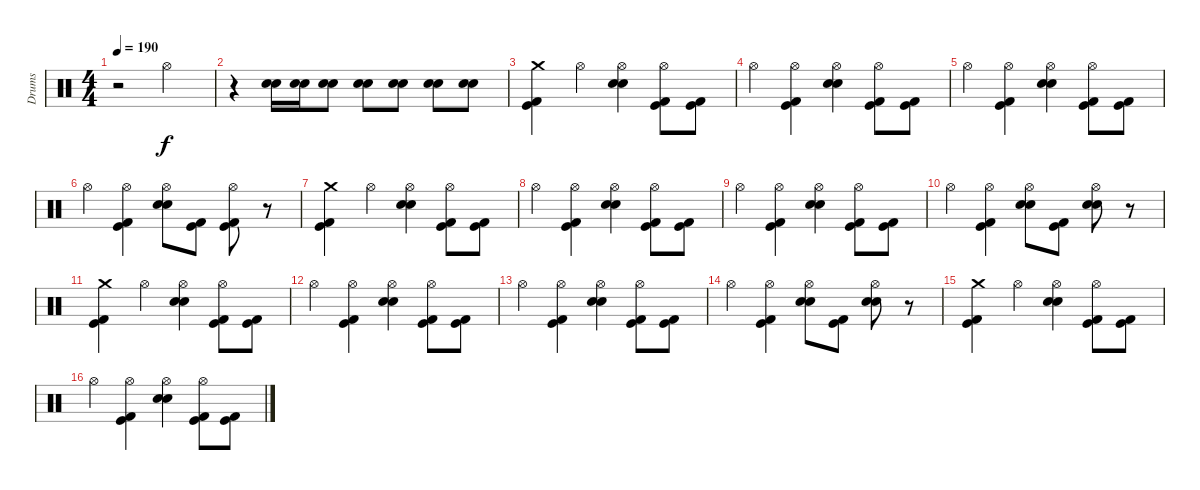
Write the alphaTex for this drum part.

\track ("Drums" "Drums") {instrument percussion}
\staff {score}
\articulation defaults
\ts (4 4)
\tempo 190
\clef neutral
\ks c
r.2{dy f} "Hi-Hat (open)".2 |
r.4 ("Snare (hit) 2" "Snare (hit) 2").16 ("Snare (hit) 2" "Snare (hit) 2").16 ("Snare (hit) 2" "Snare (hit) 2").8 ("Snare (hit) 2" "Snare (hit) 2").8 ("Snare (hit) 2" "Snare (hit) 2").8 ("Snare (hit) 2" "Snare (hit) 2").8 ("Snare (hit) 2" "Snare (hit) 2").8 |
("Crash medium (hit)" "Kick (hit)" "Kick (hit) 2").4 "Hi-Hat (open)".4 ("Hi-Hat (open)" "Snare (hit) 2" "Snare (hit) 2").4 ("Hi-Hat (open)" "Kick (hit) 2" "Kick (hit)").8 ("Kick (hit) 2" "Kick (hit)").8 |
"Hi-Hat (open)".4 ("Hi-Hat (open)" "Kick (hit) 2" "Kick (hit)").4 ("Hi-Hat (open)" "Snare (hit) 2" "Snare (hit) 2").4 ("Hi-Hat (open)" "Kick (hit) 2" "Kick (hit)").8 ("Kick (hit) 2" "Kick (hit)").8 |
"Hi-Hat (open)".4 ("Hi-Hat (open)" "Kick (hit) 2" "Kick (hit)").4 ("Hi-Hat (open)" "Snare (hit) 2" "Snare (hit) 2").4 ("Hi-Hat (open)" "Kick (hit) 2" "Kick (hit)").8 ("Kick (hit) 2" "Kick (hit)").8 |
"Hi-Hat (open)".4 ("Hi-Hat (open)" "Kick (hit) 2" "Kick (hit)").4 ("Hi-Hat (open)" "Snare (hit) 2" "Snare (hit) 2").8 ("Kick (hit) 2" "Kick (hit)").8 ("Hi-Hat (open)" "Kick (hit) 2" "Kick (hit)").8 r.8 |
("Crash medium (hit)" "Kick (hit) 2" "Kick (hit)").4 "Hi-Hat (open)".4 ("Hi-Hat (open)" "Snare (hit) 2" "Snare (hit) 2").4 ("Hi-Hat (open)" "Kick (hit) 2" "Kick (hit)").8 ("Kick (hit) 2" "Kick (hit)").8 |
"Hi-Hat (open)".4 ("Hi-Hat (open)" "Kick (hit) 2" "Kick (hit)").4 ("Hi-Hat (open)" "Snare (hit) 2" "Snare (hit) 2").4 ("Hi-Hat (open)" "Kick (hit) 2" "Kick (hit)").8 ("Kick (hit) 2" "Kick (hit)").8 |
"Hi-Hat (open)".4 ("Hi-Hat (open)" "Kick (hit) 2" "Kick (hit)").4 ("Hi-Hat (open)" "Snare (hit) 2" "Snare (hit) 2").4 ("Hi-Hat (open)" "Kick (hit) 2" "Kick (hit)").8 ("Kick (hit) 2" "Kick (hit)").8 |
"Hi-Hat (open)".4 ("Hi-Hat (open)" "Kick (hit) 2" "Kick (hit)").4 ("Hi-Hat (open)" "Snare (hit) 2" "Snare (hit) 2").8 ("Kick (hit) 2" "Kick (hit)").8 ("Hi-Hat (open)" "Snare (hit) 2" "Snare (hit) 2").8 r.8 |
("Crash medium (hit)" "Kick (hit) 2" "Kick (hit)").4 "Hi-Hat (open)".4 ("Hi-Hat (open)" "Snare (hit) 2" "Snare (hit) 2").4 ("Hi-Hat (open)" "Kick (hit) 2" "Kick (hit)").8 ("Kick (hit) 2" "Kick (hit)").8 |
"Hi-Hat (open)".4 ("Hi-Hat (open)" "Kick (hit) 2" "Kick (hit)").4 ("Hi-Hat (open)" "Snare (hit) 2" "Snare (hit) 2").4 ("Hi-Hat (open)" "Kick (hit) 2" "Kick (hit)").8 ("Kick (hit) 2" "Kick (hit)").8 |
"Hi-Hat (open)".4 ("Hi-Hat (open)" "Kick (hit) 2" "Kick (hit)").4 ("Hi-Hat (open)" "Snare (hit) 2" "Snare (hit) 2").4 ("Hi-Hat (open)" "Kick (hit) 2" "Kick (hit)").8 ("Kick (hit) 2" "Kick (hit)").8 |
"Hi-Hat (open)".4 ("Hi-Hat (open)" "Kick (hit) 2" "Kick (hit)").4 ("Hi-Hat (open)" "Snare (hit) 2" "Snare (hit) 2").8 ("Kick (hit) 2" "Kick (hit)").8 ("Hi-Hat (open)" "Snare (hit) 2" "Snare (hit) 2").8 r.8 |
("Crash medium (hit)" "Kick (hit) 2" "Kick (hit)").4 "Hi-Hat (open)".4 ("Hi-Hat (open)" "Snare (hit) 2" "Snare (hit) 2").4 ("Hi-Hat (open)" "Kick (hit) 2" "Kick (hit)").8 ("Kick (hit) 2" "Kick (hit)").8 |
"Hi-Hat (open)".4 ("Hi-Hat (open)" "Kick (hit) 2" "Kick (hit)").4 ("Hi-Hat (open)" "Snare (hit) 2" "Snare (hit) 2").4 ("Hi-Hat (open)" "Kick (hit) 2" "Kick (hit)").8 ("Kick (hit) 2" "Kick (hit)").8
